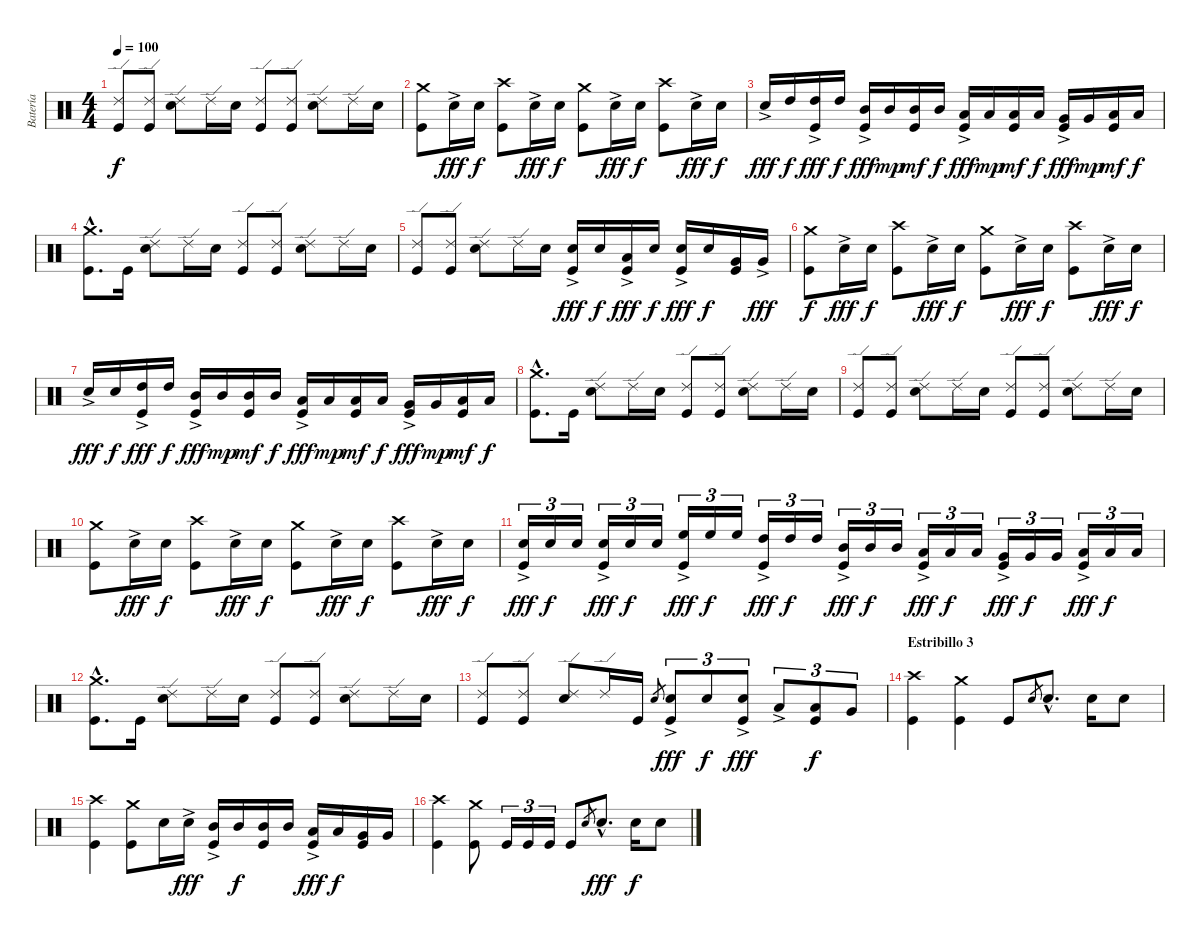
\track ("Batería" "Batería") {instrument percussion}
\staff {score}
\articulation defaults
\ts (4 4)
\tempo 100
\clef neutral
\ks c
("Kick (hit)" "Ride (edge) 2").8{dy f} ("Kick (hit)" "Ride (edge) 2").8 ("Electric Snare (hit)" "Ride (edge) 2").8 "Ride (edge) 2".16 "Electric Snare (hit)".16 ("Kick (hit)" "Ride (edge) 2").8 ("Kick (hit)" "Ride (edge) 2").8 ("Electric Snare (hit)" "Ride (edge) 2").8 "Ride (edge) 2".16 "Electric Snare (hit)".16 |
("Kick (hit)" "Crash medium (hit)").8 "Electric Snare (hit)"{ac}.16{dy fff} "Electric Snare (hit)".16{dy f} ("Kick (hit)" "Crash high (hit)").8 "Electric Snare (hit)"{ac}.16{dy fff} "Electric Snare (hit)".16{dy f} ("Kick (hit)" "Crash medium (hit)").8 "Electric Snare (hit)"{ac}.16{dy fff} "Electric Snare (hit)".16{dy f} ("Kick (hit)" "Crash high (hit)").8 "Electric Snare (hit)"{ac}.16{dy fff} "Electric Snare (hit)".16{dy f} |
"Electric Snare (hit)"{ac}.16{dy fff} "High Tom (hit)".16{dy f} ("Kick (hit)" "High Tom (hit)"{ac}).16{dy fff} "High Tom (hit)".16{dy f} ("Kick (hit)" "Mid Tom (hit)"{ac}).16{dy fff} "Mid Tom (hit)".16{dy mp} ("Kick (hit)" "Mid Tom (hit)").16{dy mf} "Mid Tom (hit)".16{dy f} ("Kick (hit)" "Low Tom (hit)"{ac}).16{dy fff} "Low Tom (hit)".16{dy mp} ("Kick (hit)" "Low Tom (hit)").16{dy mf} "Low Tom (hit)".16{dy f} ("Kick (hit)" "Very Low Tom (hit)"{ac}).16{dy fff} "Very Low Tom (hit)".16{dy mp} ("Kick (hit)" "Low Floor Tom (hit)").16{dy mf} "Low Floor Tom (hit)".16{dy f} |
("Kick (hit)"{hac} "Crash medium (hit)"{hac}).8{d} "Kick (hit)".16 ("Electric Snare (hit)" "Ride (edge) 2").8 "Ride (edge) 2".16 "Electric Snare (hit)".16 ("Kick (hit)" "Ride (edge) 2").8 ("Kick (hit)" "Ride (edge) 2").8 ("Electric Snare (hit)" "Ride (edge) 2").8 "Ride (edge) 2".16 "Electric Snare (hit)".16 |
("Kick (hit)" "Ride (edge) 2").8 ("Kick (hit)" "Ride (edge) 2").8 ("Electric Snare (hit)" "Ride (edge) 2").8 "Ride (edge) 2".16 "Electric Snare (hit)".16 ("Kick (hit)" "Electric Snare (hit)"{ac}).16{dy fff} "Electric Snare (hit)".16{dy f} ("Kick (hit)" "Low Tom (hit)"{ac}).16{dy fff} "Electric Snare (hit)".16{dy f} ("Kick (hit)" "Electric Snare (hit)"{ac}).16{dy fff} "Electric Snare (hit)".16{dy f} ("Kick (hit)" "Very Low Tom (hit)").16 "Very Low Tom (hit)"{ac}.16{dy fff} |
("Kick (hit)" "Crash medium (hit)").8{dy f} "Electric Snare (hit)"{ac}.16{dy fff} "Electric Snare (hit)".16{dy f} ("Kick (hit)" "Crash high (hit)").8 "Electric Snare (hit)"{ac}.16{dy fff} "Electric Snare (hit)".16{dy f} ("Kick (hit)" "Crash medium (hit)").8 "Electric Snare (hit)"{ac}.16{dy fff} "Electric Snare (hit)".16{dy f} ("Kick (hit)" "Crash high (hit)").8 "Electric Snare (hit)"{ac}.16{dy fff} "Electric Snare (hit)".16{dy f} |
"Electric Snare (hit)"{ac}.16{dy fff} "Electric Snare (hit)".16{dy f} ("Kick (hit)" "High Tom (hit)"{ac}).16{dy fff} "High Tom (hit)".16{dy f} ("Kick (hit)" "Mid Tom (hit)"{ac}).16{dy fff} "Mid Tom (hit)".16{dy mp} ("Kick (hit)" "Mid Tom (hit)").16{dy mf} "Mid Tom (hit)".16{dy f} ("Kick (hit)" "Low Tom (hit)"{ac}).16{dy fff} "Low Tom (hit)".16{dy mp} ("Kick (hit)" "Low Tom (hit)").16{dy mf} "Low Tom (hit)".16{dy f} ("Kick (hit)" "Very Low Tom (hit)"{ac}).16{dy fff} "Very Low Tom (hit)".16{dy mp} ("Kick (hit)" "Low Floor Tom (hit)").16{dy mf} "Low Floor Tom (hit)".16{dy f} |
("Kick (hit)"{hac} "Crash medium (hit)"{hac}).8{d} "Kick (hit)".16 ("Electric Snare (hit)" "Ride (edge) 2").8 "Ride (edge) 2".16 "Electric Snare (hit)".16 ("Kick (hit)" "Ride (edge) 2").8 ("Kick (hit)" "Ride (edge) 2").8 ("Electric Snare (hit)" "Ride (edge) 2").8 "Ride (edge) 2".16 "Electric Snare (hit)".16 |
("Kick (hit)" "Ride (edge) 2").8 ("Kick (hit)" "Ride (edge) 2").8 ("Electric Snare (hit)" "Ride (edge) 2").8 "Ride (edge) 2".16 "Electric Snare (hit)".16 ("Kick (hit)" "Ride (edge) 2").8 ("Kick (hit)" "Ride (edge) 2").8 ("Electric Snare (hit)" "Ride (edge) 2").8 "Ride (edge) 2".16 "Electric Snare (hit)".16 |
("Kick (hit)" "Crash medium (hit)").8 "Electric Snare (hit)"{ac}.16{dy fff} "Electric Snare (hit)".16{dy f} ("Kick (hit)" "Crash high (hit)").8 "Electric Snare (hit)"{ac}.16{dy fff} "Electric Snare (hit)".16{dy f} ("Kick (hit)" "Crash medium (hit)").8 "Electric Snare (hit)"{ac}.16{dy fff} "Electric Snare (hit)".16{dy f} ("Kick (hit)" "Crash high (hit)").8 "Electric Snare (hit)"{ac}.16{dy fff} "Electric Snare (hit)".16{dy f} |
("Kick (hit)" "Electric Snare (hit)"{ac}).16{tu (3 2) dy fff} "Electric Snare (hit)".16{tu (3 2) dy f} "Electric Snare (hit)".16{tu (3 2)} ("Kick (hit)" "Electric Snare (hit)"{ac}).16{tu (3 2) dy fff} "Electric Snare (hit)".16{tu (3 2) dy f} "Electric Snare (hit)".16{tu (3 2)} ("Kick (hit)" "High Floor Tom (hit)"{ac}).16{tu (3 2) dy fff} "High Floor Tom (hit)".16{tu (3 2) dy f} "High Floor Tom (hit)".16{tu (3 2)} ("Kick (hit)" "High Tom (hit)"{ac}).16{tu (3 2) dy fff} "High Tom (hit)".16{tu (3 2) dy f} "High Tom (hit)".16{tu (3 2)} ("Kick (hit)" "Mid Tom (hit)"{ac}).16{tu (3 2) dy fff} "Mid Tom (hit)".16{tu (3 2) dy f} "Mid Tom (hit)".16{tu (3 2)} ("Kick (hit)" "Low Tom (hit)"{ac}).16{tu (3 2) dy fff} "Low Tom (hit)".16{tu (3 2) dy f} "Low Tom (hit)".16{tu (3 2)} ("Kick (hit)" "Very Low Tom (hit)"{ac}).16{tu (3 2) dy fff} "Very Low Tom (hit)".16{tu (3 2) dy f} "Very Low Tom (hit)".16{tu (3 2)} ("Kick (hit)" "Low Floor Tom (hit)"{ac}).16{tu (3 2) dy fff} "Low Floor Tom (hit)".16{tu (3 2) dy f} "Low Floor Tom (hit)".16{tu (3 2)} |
("Kick (hit)"{hac} "Crash medium (hit)"{hac}).8{d} "Kick (hit)".16 ("Electric Snare (hit)" "Ride (edge) 2").8 "Ride (edge) 2".16 "Electric Snare (hit)".16 ("Kick (hit)" "Ride (edge) 2").8 ("Kick (hit)" "Ride (edge) 2").8 ("Electric Snare (hit)" "Ride (edge) 2").8 "Ride (edge) 2".16 "Electric Snare (hit)".16 |
("Kick (hit)" "Ride (edge) 2").8 ("Kick (hit)" "Ride (edge) 2").8 ("Electric Snare (hit)" "Ride (edge) 2").8 "Ride (edge) 2".16 "Kick (hit)".16 "Electric Snare (hit)".8{gr} ("Kick (hit)" "Electric Snare (hit)"{ac}).8{tu (3 2) dy fff} "Electric Snare (hit)".8{tu (3 2) dy f} ("Kick (hit)" "Electric Snare (hit)"{ac}).8{tu (3 2) dy fff} "Low Tom (hit)"{ac}.8{tu (3 2)} ("Kick (hit)" "Low Tom (hit)").8{tu (3 2) dy f} "Very Low Tom (hit)".8{tu (3 2)} |
\section ("" "Estribillo 3")
("Kick (hit)" "Crash high (hit)").4 ("Kick (hit)" "Crash medium (hit)").4 "Kick (hit)".8 "Electric Snare (hit)".8{gr} "Electric Snare (hit)"{hac}.8{d} "Electric Snare (hit)".16 "Electric Snare (hit)".8 |
("Kick (hit)" "Crash high (hit)").4 ("Kick (hit)" "Crash medium (hit)").8 "Electric Snare (hit)".16 "Electric Snare (hit)"{ac}.16{dy fff} ("Kick (hit)" "Mid Tom (hit)"{ac}).16 "Mid Tom (hit)".16{dy f} ("Kick (hit)" "Mid Tom (hit)").16 "Mid Tom (hit)".16 ("Kick (hit)" "Low Tom (hit)"{ac}).16{dy fff} "Low Tom (hit)".16{dy f} ("Kick (hit)" "Very Low Tom (hit)").16 "Very Low Tom (hit)".16 |
("Kick (hit)" "Crash high (hit)").4 ("Kick (hit)" "Crash medium (hit)").8 "Kick (hit)".16{tu (3 2)} "Kick (hit)".16{tu (3 2)} "Kick (hit)".16{tu (3 2)} "Kick (hit)".8 "Electric Snare (hit)".8{gr} "Electric Snare (hit)"{hac}.8{d dy fff} "Electric Snare (hit)".16{dy f} "Electric Snare (hit)".8
